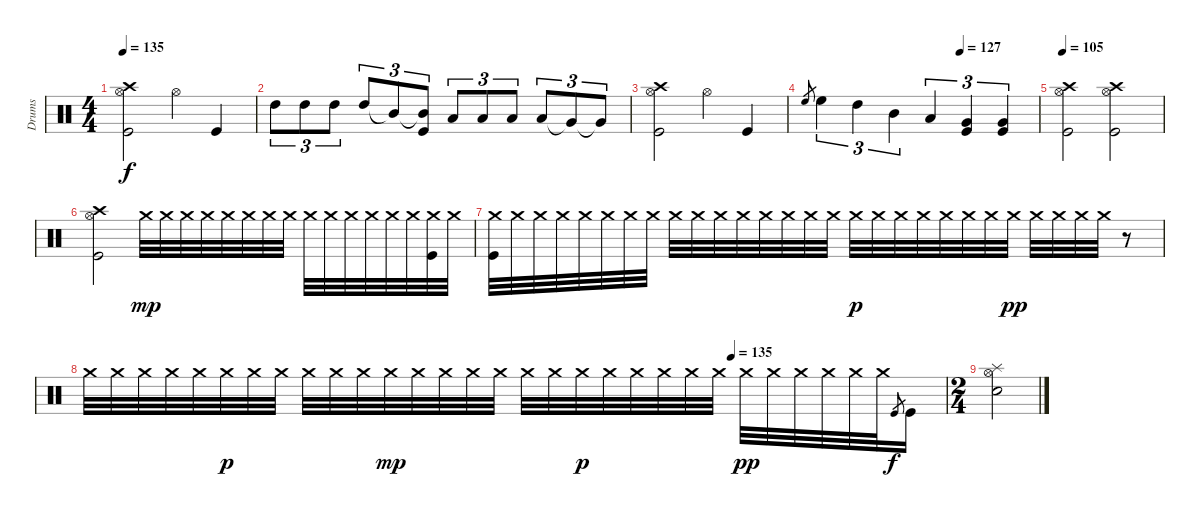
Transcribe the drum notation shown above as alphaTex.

\track ("Drums" "Drums") {instrument percussion}
\staff {score}
\articulation defaults
\ts (4 4)
\tempo 135
\clef neutral
\ks c
("Crash high (hit)" "Hi-Hat (open)" "Kick (hit)").2{dy f} "Hi-Hat (open)".4 "Kick (hit)".4 |
"High Tom (hit)".8{tu (3 2)} "High Tom (hit)".8{tu (3 2)} "High Tom (hit)".8{tu (3 2)} "High Tom (hit)".8{tu (3 2)} "Mid Tom (hit)"{t}.8{tu (3 2)} ("Mid Tom (hit)"{t} "Kick (hit)").8{tu (3 2)} "Low Tom (hit)".8{tu (3 2)} "Low Tom (hit)".8{tu (3 2)} "Low Tom (hit)".8{tu (3 2)} "Low Tom (hit)".8{tu (3 2)} "Very Low Tom (hit)"{t}.8{tu (3 2)} "Very Low Tom (hit)"{t}.8{tu (3 2)} |
("Crash high (hit)" "Hi-Hat (open)" "Kick (hit)").2 "Hi-Hat (open)".4 "Kick (hit)".4 |
\tempo (127 0.6666666666666666)
"High Floor Tom (hit)".8{gr} "High Floor Tom (hit)".4{tu (3 2)} "High Tom (hit)".4{tu (3 2)} "Mid Tom (hit)".4{tu (3 2)} "Low Tom (hit)".4{tu (3 2)} ("Very Low Tom (hit)" "Kick (hit)").4{tu (3 2)} ("Very Low Tom (hit)" "Kick (hit)").4{tu (3 2)} |
\tempo 105
("Hi-Hat (open)" "Crash high (hit)" "Kick (hit)").2 ("Hi-Hat (open)" "Crash high (hit)" "Kick (hit)").2 |
("Crash high (hit)" "Hi-Hat (open)" "Kick (hit)").2 "Crash medium (hit)".32{dy mp} "Crash medium (hit)".32 "Crash medium (hit)".32 "Crash medium (hit)".32 "Crash medium (hit)".32 "Crash medium (hit)".32 "Crash medium (hit)".32 "Crash medium (hit)".32 "Crash medium (hit)".32 "Crash medium (hit)".32 "Crash medium (hit)".32 "Crash medium (hit)".32 "Crash medium (hit)".32 "Crash medium (hit)".32 ("Crash medium (hit)" "Kick (hit)").32 "Crash medium (hit)".32 |
("Crash medium (hit)" "Kick (hit)").32 "Crash medium (hit)".32 "Crash medium (hit)".32 "Crash medium (hit)".32 "Crash medium (hit)".32 "Crash medium (hit)".32 "Crash medium (hit)".32 "Crash medium (hit)".32 "Crash medium (hit)".32 "Crash medium (hit)".32 "Crash medium (hit)".32 "Crash medium (hit)".32 "Crash medium (hit)".32 "Crash medium (hit)".32 "Crash medium (hit)".32 "Crash medium (hit)".32 "Crash medium (hit)".32{dy p} "Crash medium (hit)".32 "Crash medium (hit)".32 "Crash medium (hit)".32 "Crash medium (hit)".32 "Crash medium (hit)".32 "Crash medium (hit)".32 "Crash medium (hit)".32{dy pp} "Crash medium (hit)".32 "Crash medium (hit)".32 "Crash medium (hit)".32 "Crash medium (hit)".32 r.8 |
\tempo (135 0.75)
"Crash medium (hit)".32 "Crash medium (hit)".32 "Crash medium (hit)".32 "Crash medium (hit)".32 "Crash medium (hit)".32 "Crash medium (hit)".32{dy p} "Crash medium (hit)".32 "Crash medium (hit)".32 "Crash medium (hit)".32 "Crash medium (hit)".32 "Crash medium (hit)".32 "Crash medium (hit)".32{dy mp} "Crash medium (hit)".32 "Crash medium (hit)".32 "Crash medium (hit)".32 "Crash medium (hit)".32 "Crash medium (hit)".32 "Crash medium (hit)".32 "Crash medium (hit)".32{dy p} "Crash medium (hit)".32 "Crash medium (hit)".32 "Crash medium (hit)".32 "Crash medium (hit)".32 "Crash medium (hit)".32 "Crash medium (hit)".32{dy pp} "Crash medium (hit)".32 "Crash medium (hit)".32 "Crash medium (hit)".32 "Crash medium (hit)".32 "Crash medium (hit)".32 "Kick (hit)".8{gr dy f} "Kick (hit)".16 |
\ts (2 4)
("Splash (hit)" "Hi-Hat (open)" "Electric Snare (hit)").2
